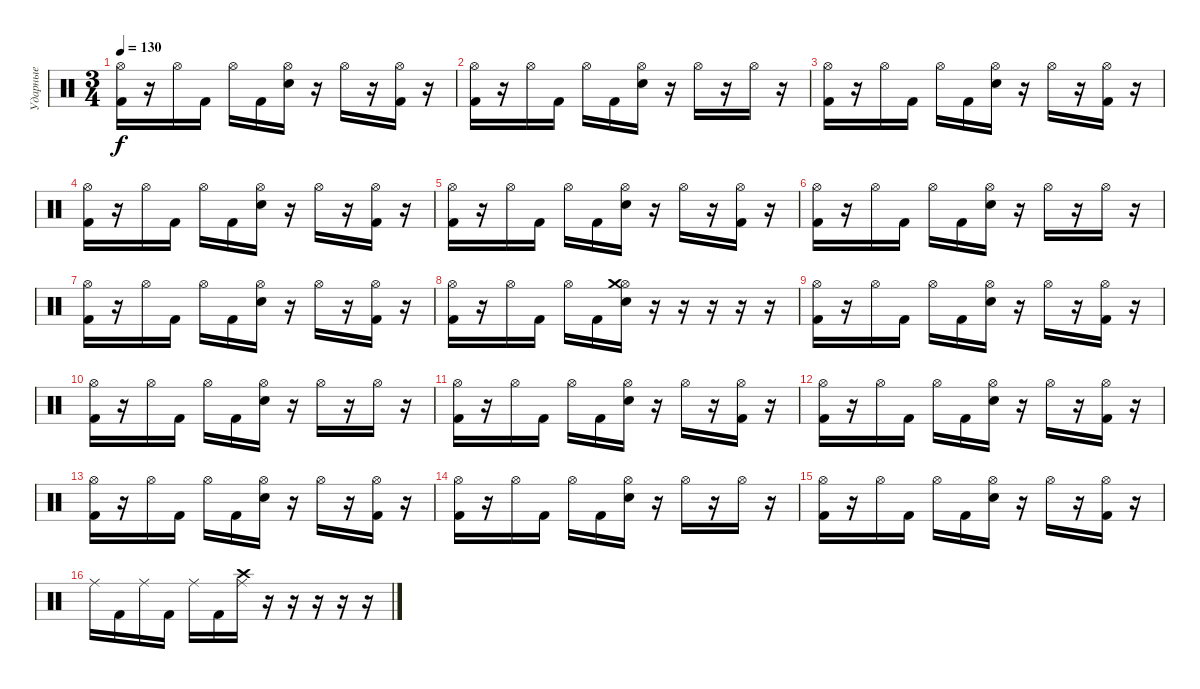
\track ("Ударные" "Ударные") {instrument percussion}
\staff {score}
\articulation defaults
\ts (3 4)
\tempo 130
\clef neutral
\ks c
("Hi-Hat (open)" "Kick (hit) 2").16{dy f} r.16 "Hi-Hat (open)".16 "Kick (hit) 2".16 "Hi-Hat (open)".16 "Kick (hit) 2".16 ("Snare (hit) 2" "Hi-Hat (open)").16 r.16 "Hi-Hat (open)".16 r.16 ("Hi-Hat (open)" "Kick (hit) 2").16 r.16 |
("Hi-Hat (open)" "Kick (hit) 2").16 r.16 "Hi-Hat (open)".16 "Kick (hit) 2".16 "Hi-Hat (open)".16 "Kick (hit) 2".16 ("Snare (hit) 2" "Hi-Hat (open)").16 r.16 "Hi-Hat (open)".16 r.16 "Hi-Hat (open)".16 r.16 |
("Hi-Hat (open)" "Kick (hit) 2").16 r.16 "Hi-Hat (open)".16 "Kick (hit) 2".16 "Hi-Hat (open)".16 "Kick (hit) 2".16 ("Snare (hit) 2" "Hi-Hat (open)").16 r.16 "Hi-Hat (open)".16 r.16 ("Hi-Hat (open)" "Kick (hit) 2").16 r.16 |
("Hi-Hat (open)" "Kick (hit) 2").16 r.16 "Hi-Hat (open)".16 "Kick (hit) 2".16 "Hi-Hat (open)".16 "Kick (hit) 2".16 ("Snare (hit) 2" "Hi-Hat (open)").16 r.16 "Hi-Hat (open)".16 r.16 ("Hi-Hat (open)" "Kick (hit) 2").16 r.16 |
("Hi-Hat (open)" "Kick (hit) 2").16 r.16 "Hi-Hat (open)".16 "Kick (hit) 2".16 "Hi-Hat (open)".16 "Kick (hit) 2".16 ("Snare (hit) 2" "Hi-Hat (open)").16 r.16 "Hi-Hat (open)".16 r.16 ("Hi-Hat (open)" "Kick (hit) 2").16 r.16 |
("Hi-Hat (open)" "Kick (hit) 2").16 r.16 "Hi-Hat (open)".16 "Kick (hit) 2".16 "Hi-Hat (open)".16 "Kick (hit) 2".16 ("Snare (hit) 2" "Hi-Hat (open)").16 r.16 "Hi-Hat (open)".16 r.16 "Hi-Hat (open)".16 r.16 |
("Hi-Hat (open)" "Kick (hit) 2").16 r.16 "Hi-Hat (open)".16 "Kick (hit) 2".16 "Hi-Hat (open)".16 "Kick (hit) 2".16 ("Snare (hit) 2" "Hi-Hat (open)").16 r.16 "Hi-Hat (open)".16 r.16 ("Hi-Hat (open)" "Kick (hit) 2").16 r.16 |
("Hi-Hat (open)" "Kick (hit) 2").16 r.16 "Hi-Hat (open)".16 "Kick (hit) 2".16 "Hi-Hat (open)".16 "Kick (hit) 2".16 ("Snare (hit) 2" "Hi-Hat (open)" "Crash medium (hit)").16 r.16 r.16 r.16 r.16 r.16 |
("Hi-Hat (open)" "Kick (hit) 2").16 r.16 "Hi-Hat (open)".16 "Kick (hit) 2".16 "Hi-Hat (open)".16 "Kick (hit) 2".16 ("Snare (hit) 2" "Hi-Hat (open)").16 r.16 "Hi-Hat (open)".16 r.16 ("Hi-Hat (open)" "Kick (hit) 2").16 r.16 |
("Hi-Hat (open)" "Kick (hit) 2").16 r.16 "Hi-Hat (open)".16 "Kick (hit) 2".16 "Hi-Hat (open)".16 "Kick (hit) 2".16 ("Snare (hit) 2" "Hi-Hat (open)").16 r.16 "Hi-Hat (open)".16 r.16 "Hi-Hat (open)".16 r.16 |
("Hi-Hat (open)" "Kick (hit) 2").16 r.16 "Hi-Hat (open)".16 "Kick (hit) 2".16 "Hi-Hat (open)".16 "Kick (hit) 2".16 ("Snare (hit) 2" "Hi-Hat (open)").16 r.16 "Hi-Hat (open)".16 r.16 ("Hi-Hat (open)" "Kick (hit) 2").16 r.16 |
("Hi-Hat (open)" "Kick (hit) 2").16 r.16 "Hi-Hat (open)".16 "Kick (hit) 2".16 "Hi-Hat (open)".16 "Kick (hit) 2".16 ("Snare (hit) 2" "Hi-Hat (open)").16 r.16 "Hi-Hat (open)".16 r.16 ("Hi-Hat (open)" "Kick (hit) 2").16 r.16 |
("Hi-Hat (open)" "Kick (hit) 2").16 r.16 "Hi-Hat (open)".16 "Kick (hit) 2".16 "Hi-Hat (open)".16 "Kick (hit) 2".16 ("Snare (hit) 2" "Hi-Hat (open)").16 r.16 "Hi-Hat (open)".16 r.16 ("Hi-Hat (open)" "Kick (hit) 2").16 r.16 |
("Hi-Hat (open)" "Kick (hit) 2").16 r.16 "Hi-Hat (open)".16 "Kick (hit) 2".16 "Hi-Hat (open)".16 "Kick (hit) 2".16 ("Snare (hit) 2" "Hi-Hat (open)").16 r.16 "Hi-Hat (open)".16 r.16 "Hi-Hat (open)".16 r.16 |
("Hi-Hat (open)" "Kick (hit) 2").16 r.16 "Hi-Hat (open)".16 "Kick (hit) 2".16 "Hi-Hat (open)".16 "Kick (hit) 2".16 ("Snare (hit) 2" "Hi-Hat (open)").16 r.16 "Hi-Hat (open)".16 r.16 ("Hi-Hat (open)" "Kick (hit) 2").16 r.16 |
"Ride (middle)".16 "Kick (hit) 2".16 "Ride (middle)".16 "Kick (hit) 2".16 "Ride (middle)".16 "Kick (hit) 2".16 ("Ride (middle)" "Crash high (hit)").16 r.16 r.16 r.16 r.16 r.16
